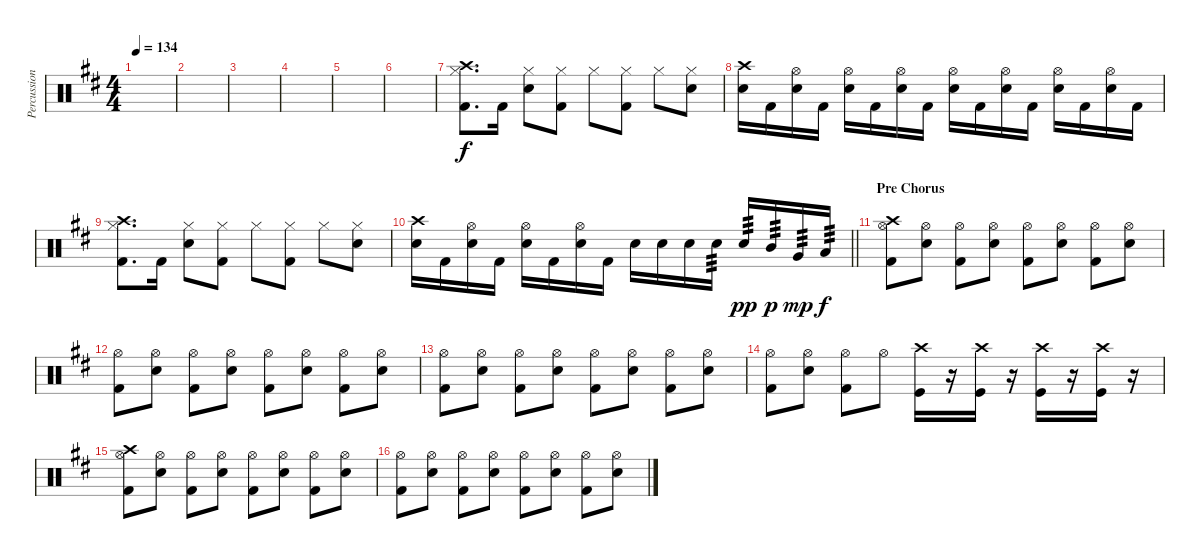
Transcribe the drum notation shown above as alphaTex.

\track ("Percussion" "Percussion") {instrument percussion}
\staff {score}
\articulation defaults
\ts (4 4)
\tempo 134
\clef neutral
\ks bminor
|
|
|
|
|
|
("Crash high (hit)" "Hi-Hat (closed)" "Kick (hit) 2").8{d dy f} "Kick (hit) 2".16 ("Hi-Hat (closed)" "Snare (hit) 2").8 ("Hi-Hat (closed)" "Kick (hit) 2").8 "Hi-Hat (closed)".8 ("Hi-Hat (closed)" "Kick (hit) 2").8 "Hi-Hat (closed)".8 ("Hi-Hat (closed)" "Snare (hit) 2").8 |
("Crash high (hit)" "Snare (hit) 2").16 "Kick (hit) 2".16 ("Hi-Hat (open)" "Snare (hit) 2").16 "Kick (hit) 2".16 ("Hi-Hat (open)" "Snare (hit) 2").16 "Kick (hit) 2".16 ("Hi-Hat (open)" "Snare (hit) 2").16 "Kick (hit) 2".16 ("Hi-Hat (open)" "Snare (hit) 2").16 "Kick (hit) 2".16 ("Hi-Hat (open)" "Snare (hit) 2").16 "Kick (hit) 2".16 ("Hi-Hat (open)" "Snare (hit) 2").16 "Kick (hit) 2".16 ("Hi-Hat (open)" "Snare (hit) 2").16 "Kick (hit) 2".16 |
("Crash high (hit)" "Hi-Hat (closed)" "Kick (hit) 2").8{d} "Kick (hit) 2".16 ("Hi-Hat (closed)" "Snare (hit) 2").8 ("Hi-Hat (closed)" "Kick (hit) 2").8 "Hi-Hat (closed)".8 ("Hi-Hat (closed)" "Kick (hit) 2").8 "Hi-Hat (closed)".8 ("Hi-Hat (closed)" "Snare (hit) 2").8 |
\barLineRight lightlight
("Crash high (hit)" "Snare (hit) 2").16 "Kick (hit) 2".16 ("Hi-Hat (open)" "Snare (hit) 2").16 "Kick (hit) 2".16 ("Hi-Hat (open)" "Snare (hit) 2").16 "Kick (hit) 2".16 ("Hi-Hat (open)" "Snare (hit) 2").16 "Kick (hit) 2".16 "Snare (hit) 2".16 "Snare (hit) 2".16 "Snare (hit) 2".16 "Snare (hit) 2".16{tp 3} "Snare (hit) 2".16{tp 3 dy pp} "Mid Tom (hit)".16{tp 3 dy p} "Very Low Tom (hit)".16{tp 3 dy mp} "Low Floor Tom (hit)".16{tp 3 dy f} |
\section ("" "Pre Chorus")
("Crash high (hit)" "Hi-Hat (open)" "Kick (hit) 2").8 ("Hi-Hat (open)" "Snare (hit) 2").8 ("Hi-Hat (open)" "Kick (hit) 2").8 ("Hi-Hat (open)" "Snare (hit) 2").8 ("Hi-Hat (open)" "Kick (hit) 2").8 ("Hi-Hat (open)" "Snare (hit) 2").8 ("Hi-Hat (open)" "Kick (hit) 2").8 ("Hi-Hat (open)" "Snare (hit) 2").8 |
("Hi-Hat (open)" "Kick (hit) 2").8 ("Hi-Hat (open)" "Snare (hit) 2").8 ("Hi-Hat (open)" "Kick (hit) 2").8 ("Hi-Hat (open)" "Snare (hit) 2").8 ("Hi-Hat (open)" "Kick (hit) 2").8 ("Hi-Hat (open)" "Snare (hit) 2").8 ("Hi-Hat (open)" "Kick (hit) 2").8 ("Hi-Hat (open)" "Snare (hit) 2").8 |
("Hi-Hat (open)" "Kick (hit) 2").8 ("Hi-Hat (open)" "Snare (hit) 2").8 ("Hi-Hat (open)" "Kick (hit) 2").8 ("Hi-Hat (open)" "Snare (hit) 2").8 ("Hi-Hat (open)" "Kick (hit) 2").8 ("Hi-Hat (open)" "Snare (hit) 2").8 ("Hi-Hat (open)" "Kick (hit) 2").8 ("Hi-Hat (open)" "Snare (hit) 2").8 |
("Hi-Hat (open)" "Kick (hit) 2").8 ("Hi-Hat (open)" "Snare (hit) 2").8 ("Hi-Hat (open)" "Kick (hit) 2").8 "Hi-Hat (open)".8 ("Crash high (hit)" "Kick (hit)").16 r.16 ("Crash high (hit)" "Kick (hit)").16 r.16 ("Crash high (hit)" "Kick (hit)").16 r.16 ("Crash high (hit)" "Kick (hit)").16 r.16 |
("Crash high (hit)" "Hi-Hat (open)" "Kick (hit) 2").8 ("Hi-Hat (open)" "Snare (hit) 2").8 ("Hi-Hat (open)" "Kick (hit) 2").8 ("Hi-Hat (open)" "Snare (hit) 2").8 ("Hi-Hat (open)" "Kick (hit) 2").8 ("Hi-Hat (open)" "Snare (hit) 2").8 ("Hi-Hat (open)" "Kick (hit) 2").8 ("Hi-Hat (open)" "Snare (hit) 2").8 |
("Hi-Hat (open)" "Kick (hit) 2").8 ("Hi-Hat (open)" "Snare (hit) 2").8 ("Hi-Hat (open)" "Kick (hit) 2").8 ("Hi-Hat (open)" "Snare (hit) 2").8 ("Hi-Hat (open)" "Kick (hit) 2").8 ("Hi-Hat (open)" "Snare (hit) 2").8 ("Hi-Hat (open)" "Kick (hit) 2").8 ("Hi-Hat (open)" "Snare (hit) 2").8
